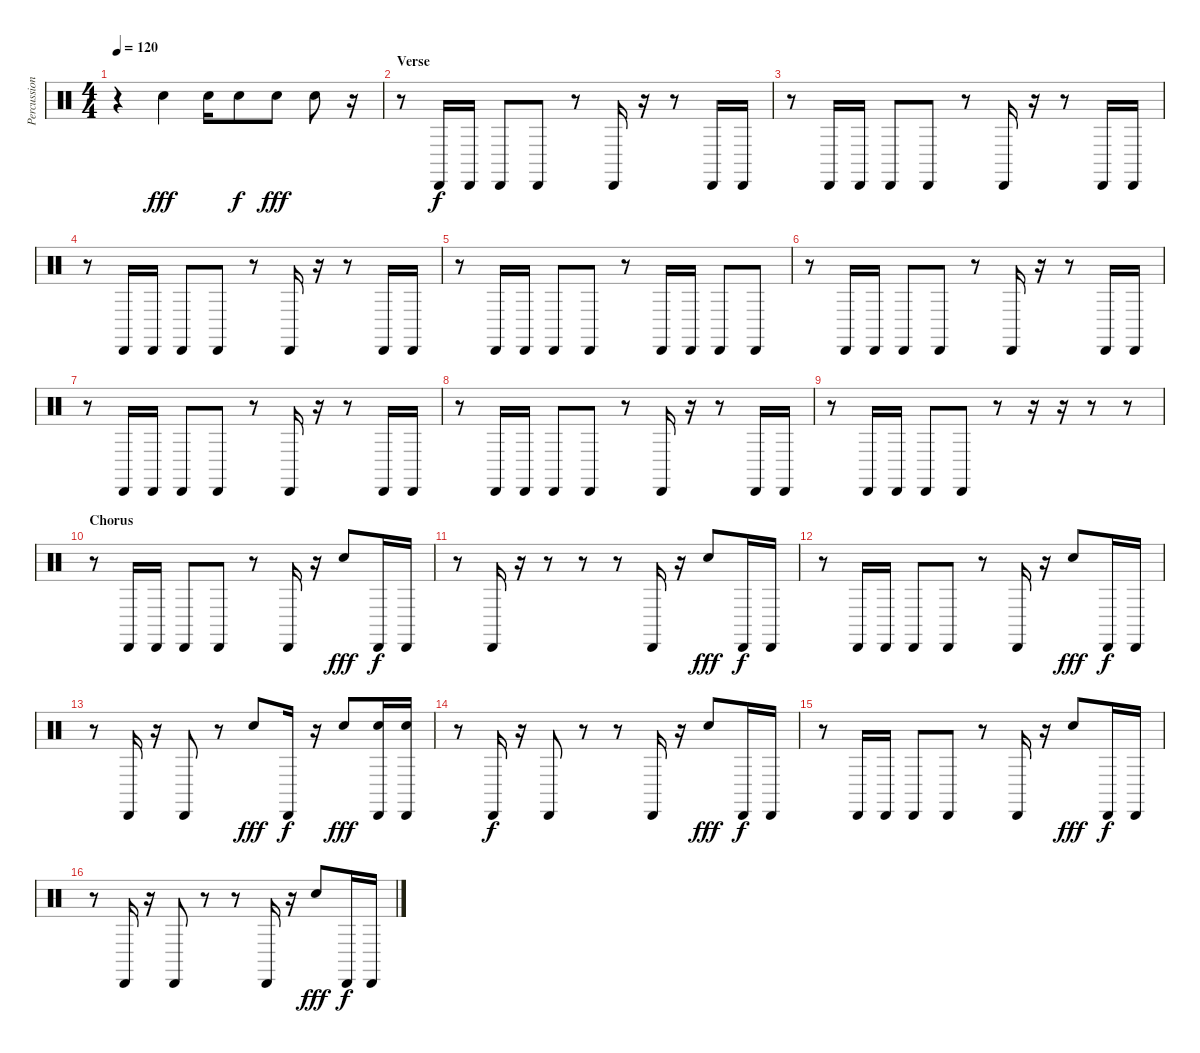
\track ("Percussion" "Percussion") {instrument percussion}
\staff {score}
\articulation defaults
\ts (4 4)
\tempo 120
\clef neutral
\ks c
r.4{dy fff} "Hand Clap (hit)".4 "Hand Clap (hit)".16 "Hand Clap (hit)".8{dy f} "Hand Clap (hit)".8{dy fff} "Hand Clap (hit)".8 r.16 |
\section ("" "Verse")
r.8 "Cabasa (hit)".16{dy f} "Cabasa (hit)".16 "Cabasa (hit)".8 "Cabasa (hit)".8 r.8 "Cabasa (hit)".16 r.16 r.8 "Cabasa (hit)".16 "Cabasa (hit)".16 |
r.8 "Cabasa (hit)".16 "Cabasa (hit)".16 "Cabasa (hit)".8 "Cabasa (hit)".8 r.8 "Cabasa (hit)".16 r.16 r.8 "Cabasa (hit)".16 "Cabasa (hit)".16 |
r.8 "Cabasa (hit)".16 "Cabasa (hit)".16 "Cabasa (hit)".8 "Cabasa (hit)".8 r.8 "Cabasa (hit)".16 r.16 r.8 "Cabasa (hit)".16 "Cabasa (hit)".16 |
r.8 "Cabasa (hit)".16 "Cabasa (hit)".16 "Cabasa (hit)".8 "Cabasa (hit)".8 r.8 "Cabasa (hit)".16 "Cabasa (hit)".16 "Cabasa (hit)".8 "Cabasa (hit)".8 |
r.8 "Cabasa (hit)".16 "Cabasa (hit)".16 "Cabasa (hit)".8 "Cabasa (hit)".8 r.8 "Cabasa (hit)".16 r.16 r.8 "Cabasa (hit)".16 "Cabasa (hit)".16 |
r.8 "Cabasa (hit)".16 "Cabasa (hit)".16 "Cabasa (hit)".8 "Cabasa (hit)".8 r.8 "Cabasa (hit)".16 r.16 r.8 "Cabasa (hit)".16 "Cabasa (hit)".16 |
r.8 "Cabasa (hit)".16 "Cabasa (hit)".16 "Cabasa (hit)".8 "Cabasa (hit)".8 r.8 "Cabasa (hit)".16 r.16 r.8 "Cabasa (hit)".16 "Cabasa (hit)".16 |
r.8 "Cabasa (hit)".16 "Cabasa (hit)".16 "Cabasa (hit)".8 "Cabasa (hit)".8 r.8 r.16 r.16 r.8 r.8 |
\section ("" "Chorus")
r.8 "Cabasa (hit)".16 "Cabasa (hit)".16 "Cabasa (hit)".8 "Cabasa (hit)".8 r.8 "Cabasa (hit)".16 r.16 "Hand Clap (hit)".8{dy fff} "Cabasa (hit)".16{dy f} "Cabasa (hit)".16 |
r.8 "Cabasa (hit)".16 r.16 r.8 r.8 r.8 "Cabasa (hit)".16 r.16 "Hand Clap (hit)".8{dy fff} "Cabasa (hit)".16{dy f} "Cabasa (hit)".16 |
r.8 "Cabasa (hit)".16 "Cabasa (hit)".16 "Cabasa (hit)".8 "Cabasa (hit)".8 r.8 "Cabasa (hit)".16 r.16 "Hand Clap (hit)".8{dy fff} "Cabasa (hit)".16{dy f} "Cabasa (hit)".16 |
r.8 "Cabasa (hit)".16 r.16 "Cabasa (hit)".8 r.8 "Hand Clap (hit)".8{dy fff} "Cabasa (hit)".16{dy f} r.16 "Hand Clap (hit)".8{dy fff} ("Cabasa (hit)" "Hand Clap (hit)").16 ("Cabasa (hit)" "Hand Clap (hit)").16 |
r.8 "Cabasa (hit)".16{dy f} r.16 "Cabasa (hit)".8 r.8 r.8 "Cabasa (hit)".16 r.16 "Hand Clap (hit)".8{dy fff} "Cabasa (hit)".16{dy f} "Cabasa (hit)".16 |
r.8 "Cabasa (hit)".16 "Cabasa (hit)".16 "Cabasa (hit)".8 "Cabasa (hit)".8 r.8 "Cabasa (hit)".16 r.16 "Hand Clap (hit)".8{dy fff} "Cabasa (hit)".16{dy f} "Cabasa (hit)".16 |
r.8 "Cabasa (hit)".16 r.16 "Cabasa (hit)".8 r.8 r.8 "Cabasa (hit)".16 r.16 "Hand Clap (hit)".8{dy fff} "Cabasa (hit)".16{dy f} "Cabasa (hit)".16
